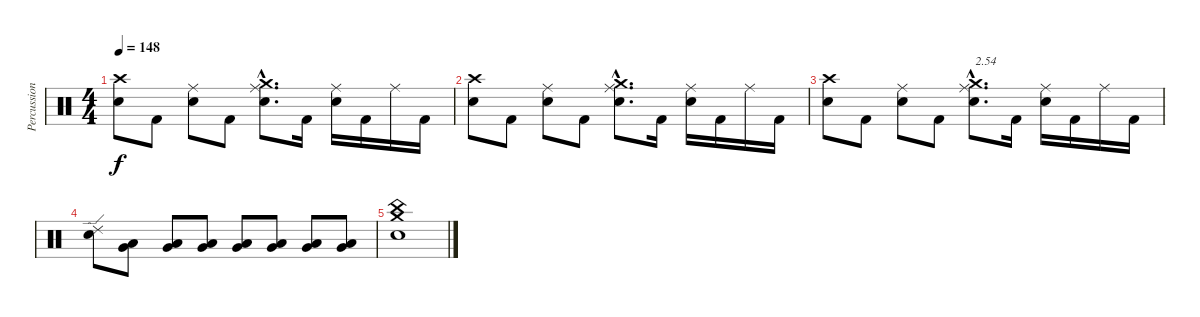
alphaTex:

\track ("Percussions" "Percussion") {instrument percussion}
\staff {score}
\articulation defaults
\ts (4 4)
\tempo 148
\clef neutral
\ks c
("Electric Snare (hit)" "Crash high (hit)").8{dy f} "Kick (hit) 2".8 ("Electric Snare (hit)" "Ride (middle)").8 "Kick (hit) 2".8 ("Electric Snare (hit)"{hac} "Crash medium (hit)"{hac} "Ride (middle)"{hac}).8{d} "Kick (hit) 2".16 ("Electric Snare (hit)" "Ride (middle)").16 "Kick (hit) 2".16 "Ride (middle)".16 "Kick (hit) 2".16 |
("Electric Snare (hit)" "Crash high (hit)").8 "Kick (hit) 2".8 ("Electric Snare (hit)" "Ride (middle)").8 "Kick (hit) 2".8 ("Electric Snare (hit)"{hac} "Crash medium (hit)"{hac} "Ride (middle)"{hac}).8{d} "Kick (hit) 2".16 ("Electric Snare (hit)" "Ride (middle)").16 "Kick (hit) 2".16 "Ride (middle)".16 "Kick (hit) 2".16 |
("Electric Snare (hit)" "Crash high (hit)").8 "Kick (hit) 2".8 ("Electric Snare (hit)" "Ride (middle)").8 "Kick (hit) 2".8 ("Electric Snare (hit)"{hac} "Crash medium (hit)"{hac} "Ride (middle)"{hac}).8{d txt "2.54"} "Kick (hit) 2".16 ("Electric Snare (hit)" "Ride (middle)").16 "Kick (hit) 2".16 "Ride (middle)".16 "Kick (hit) 2".16 |
("Electric Snare (hit)" "Ride (edge) 2").8 ("Low Floor Tom (hit)" "Very Low Tom (hit)").8 ("Low Floor Tom (hit)" "Very Low Tom (hit)").8 ("Low Floor Tom (hit)" "Very Low Tom (hit)").8 ("Low Floor Tom (hit)" "Very Low Tom (hit)").8 ("Low Floor Tom (hit)" "Very Low Tom (hit)").8 ("Low Floor Tom (hit)" "Very Low Tom (hit)").8 ("Low Floor Tom (hit)" "Very Low Tom (hit)").8 |
("Electric Snare (hit)" "Crash medium (hit)" "China (hit)").1
